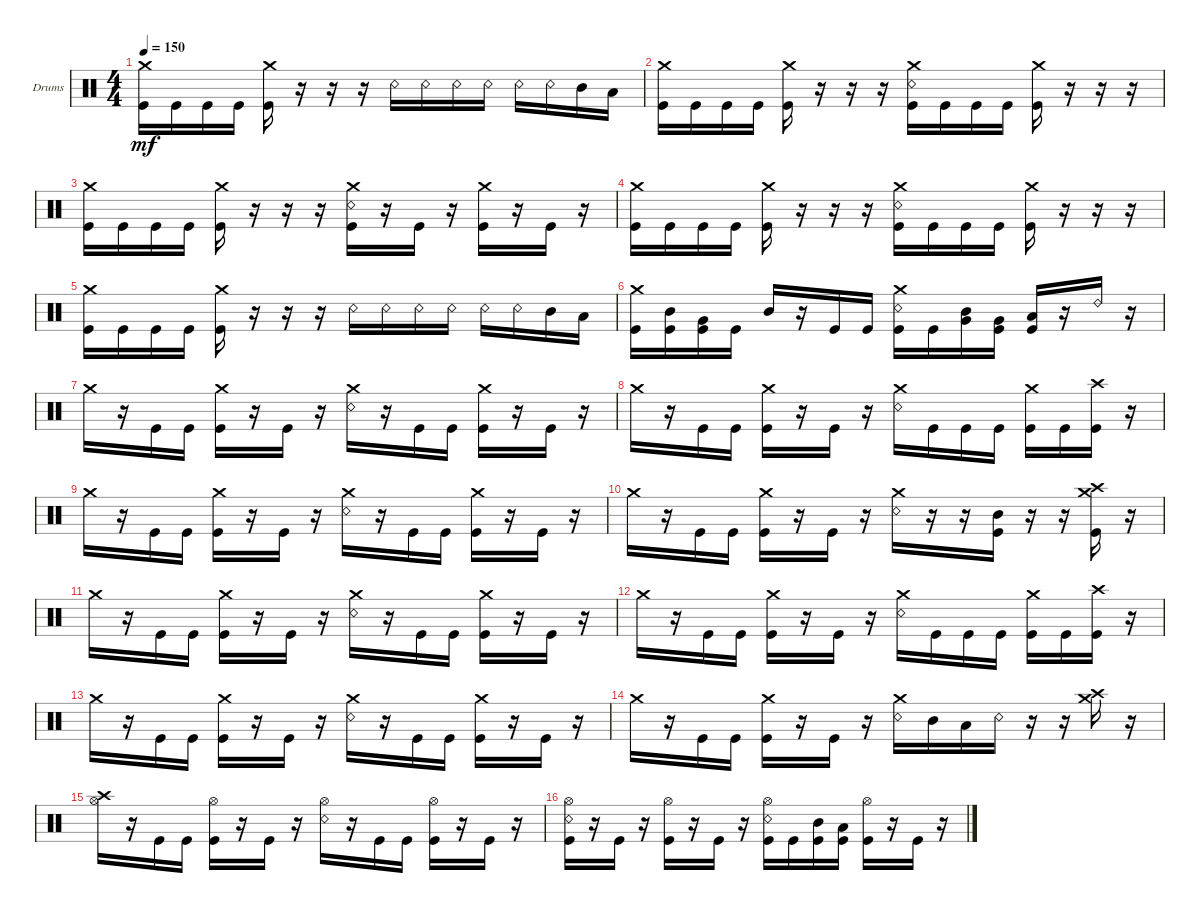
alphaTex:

\bracketExtendMode groupsimilarinstruments
\firstSystemTrackNameOrientation horizontal
\otherSystemsTrackNameOrientation horizontal
\track ("Drumkit" "Drums") {instrument percussion}
\staff {score}
\articulation defaults
\ts (4 4)
\tempo 150
\clef neutral
\ks c
("Crash medium (hit)" "Kick (hit)").16{dy mf} "Kick (hit)".16 "Kick (hit)".16 "Kick (hit)".16 ("Kick (hit)" "Crash medium (hit)").16 r.16 r.16 r.16 "Snare (rim shot)".16 "Snare (rim shot)".16 "Snare (rim shot)".16 "Snare (rim shot)".16 "Snare (rim shot)".16 "Snare (rim shot)".16 "Mid Tom (hit)".16 "Low Tom (hit)".16 |
("Crash medium (hit)" "Kick (hit)").16 "Kick (hit)".16 "Kick (hit)".16 "Kick (hit)".16 ("Kick (hit)" "Crash medium (hit)").16 r.16 r.16 r.16 ("Kick (hit)" "Snare (rim shot)" "Crash medium (hit)").16 "Kick (hit)".16 "Kick (hit)".16 "Kick (hit)".16 ("Kick (hit)" "Crash medium (hit)").16 r.16 r.16 r.16 |
("Crash medium (hit)" "Kick (hit)").16 "Kick (hit)".16 "Kick (hit)".16 "Kick (hit)".16 ("Kick (hit)" "Crash medium (hit)").16 r.16 r.16 r.16 ("Kick (hit)" "Snare (rim shot)" "Crash medium (hit)").16 r.16 "Kick (hit)".16 r.16 ("Kick (hit)" "Crash medium (hit)").16 r.16 "Kick (hit)".16 r.16 |
("Crash medium (hit)" "Kick (hit)").16 "Kick (hit)".16 "Kick (hit)".16 "Kick (hit)".16 ("Kick (hit)" "Crash medium (hit)").16 r.16 r.16 r.16 ("Kick (hit)" "Snare (rim shot)" "Crash medium (hit)").16 "Kick (hit)".16 "Kick (hit)".16 "Kick (hit)".16 ("Kick (hit)" "Crash medium (hit)").16 r.16 r.16 r.16 |
("Crash medium (hit)" "Kick (hit)").16 "Kick (hit)".16 "Kick (hit)".16 "Kick (hit)".16 ("Kick (hit)" "Crash medium (hit)").16 r.16 r.16 r.16 "Snare (rim shot)".16 "Snare (rim shot)".16 "Snare (rim shot)".16 "Snare (rim shot)".16 "Snare (rim shot)".16 "Snare (rim shot)".16 "Mid Tom (hit)".16 "Low Tom (hit)".16 |
("Crash medium (hit)" "Kick (hit)").16 ("Kick (hit)" "Mid Tom (hit)").16 ("Kick (hit)" "Very Low Tom (hit)").16 "Kick (hit)".16 "Mid Tom (hit)".16 r.16 "Kick (hit)".16 "Kick (hit)".16 ("Kick (hit)" "Snare (rim shot)" "Crash medium (hit)").16 "Kick (hit)".16 ("Very Low Tom (hit)" "Mid Tom (hit)").16 ("Kick (hit)" "Very Low Tom (hit)").16 ("Kick (hit)" "Low Tom (hit)").16 r.16 "Ride (bell) 2".16 r.16 |
"Crash medium (hit)".16 r.16 "Kick (hit)".16 "Kick (hit)".16 ("Kick (hit)" "Crash medium (hit)").16 r.16 "Kick (hit)".16 r.16 ("Snare (rim shot)" "Crash medium (hit)").16 r.16 "Kick (hit)".16 "Kick (hit)".16 ("Kick (hit)" "Crash medium (hit)").16 r.16 "Kick (hit)".16 r.16 |
"Crash medium (hit)".16 r.16 "Kick (hit)".16 "Kick (hit)".16 ("Kick (hit)" "Crash medium (hit)").16 r.16 "Kick (hit)".16 r.16 ("Snare (rim shot)" "Crash medium (hit)").16 "Kick (hit)".16 "Kick (hit)".16 "Kick (hit)".16 ("Kick (hit)" "Crash medium (hit)").16 "Kick (hit)".16 ("Kick (hit)" "Crash high (hit)").16 r.16 |
"Crash medium (hit)".16 r.16 "Kick (hit)".16 "Kick (hit)".16 ("Kick (hit)" "Crash medium (hit)").16 r.16 "Kick (hit)".16 r.16 ("Snare (rim shot)" "Crash medium (hit)").16 r.16 "Kick (hit)".16 "Kick (hit)".16 ("Kick (hit)" "Crash medium (hit)").16 r.16 "Kick (hit)".16 r.16 |
"Crash medium (hit)".16 r.16 "Kick (hit)".16 "Kick (hit)".16 ("Kick (hit)" "Crash medium (hit)").16 r.16 "Kick (hit)".16 r.16 ("Snare (rim shot)" "Crash medium (hit)").16 r.16 r.16 ("Kick (hit)" "Mid Tom (hit)").16 r.16 r.16 ("Kick (hit)" "Crash high (hit)" "Crash medium (hit)").16 r.16 |
"Crash medium (hit)".16 r.16 "Kick (hit)".16 "Kick (hit)".16 ("Kick (hit)" "Crash medium (hit)").16 r.16 "Kick (hit)".16 r.16 ("Snare (rim shot)" "Crash medium (hit)").16 r.16 "Kick (hit)".16 "Kick (hit)".16 ("Kick (hit)" "Crash medium (hit)").16 r.16 "Kick (hit)".16 r.16 |
"Crash medium (hit)".16 r.16 "Kick (hit)".16 "Kick (hit)".16 ("Kick (hit)" "Crash medium (hit)").16 r.16 "Kick (hit)".16 r.16 ("Snare (rim shot)" "Crash medium (hit)").16 "Kick (hit)".16 "Kick (hit)".16 "Kick (hit)".16 ("Kick (hit)" "Crash medium (hit)").16 "Kick (hit)".16 ("Kick (hit)" "Crash high (hit)").16 r.16 |
"Crash medium (hit)".16 r.16 "Kick (hit)".16 "Kick (hit)".16 ("Kick (hit)" "Crash medium (hit)").16 r.16 "Kick (hit)".16 r.16 ("Snare (rim shot)" "Crash medium (hit)").16 r.16 "Kick (hit)".16 "Kick (hit)".16 ("Kick (hit)" "Crash medium (hit)").16 r.16 "Kick (hit)".16 r.16 |
"Crash medium (hit)".16 r.16 "Kick (hit)".16 "Kick (hit)".16 ("Kick (hit)" "Crash medium (hit)").16 r.16 "Kick (hit)".16 r.16 ("Snare (rim shot)" "Crash medium (hit)").16 "Mid Tom (hit)".16 "Low Tom (hit)".16 "Snare (rim shot)".16 r.16 r.16 ("Crash high (hit)" "Crash medium (hit)").16 r.16 |
("Crash high (hit)" "Hi-Hat (open)").16 r.16 "Kick (hit)".16 "Kick (hit)".16 ("Kick (hit)" "Hi-Hat (open)").16 r.16 "Kick (hit)".16 r.16 ("Snare (rim shot)" "Hi-Hat (open)").16 r.16 "Kick (hit)".16 "Kick (hit)".16 ("Kick (hit)" "Hi-Hat (open)").16 r.16 "Kick (hit)".16 r.16 |
("Kick (hit)" "Snare (rim shot)" "Hi-Hat (open)").16 r.16 "Kick (hit)".16 r.16 ("Kick (hit)" "Hi-Hat (open)").16 r.16 "Kick (hit)".16 r.16 ("Kick (hit)" "Snare (rim shot)" "Hi-Hat (open)").16 "Kick (hit)".16 ("Kick (hit)" "Mid Tom (hit)").16 ("Kick (hit)" "Low Tom (hit)").16 ("Kick (hit)" "Hi-Hat (open)").16 r.16 "Kick (hit)".16 r.16
